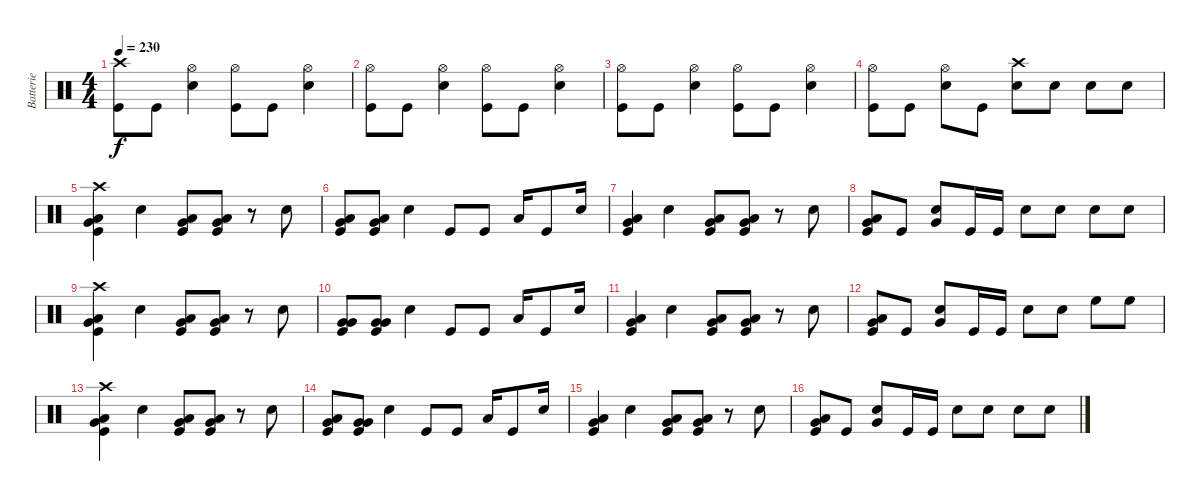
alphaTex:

\track ("Batterie" "Batterie") {instrument percussion}
\staff {score}
\articulation defaults
\ts (4 4)
\tempo 230
\clef neutral
\ks c
("Crash high (hit)" "Kick (hit)").8{dy f} "Kick (hit)".8 ("Hi-Hat (open)" "Snare (hit) 2").4 ("Hi-Hat (open)" "Kick (hit)").8 "Kick (hit)".8 ("Hi-Hat (open)" "Snare (hit) 2").4 |
("Hi-Hat (open)" "Kick (hit)").8 "Kick (hit)".8 ("Hi-Hat (open)" "Snare (hit) 2").4 ("Hi-Hat (open)" "Kick (hit)").8 "Kick (hit)".8 ("Hi-Hat (open)" "Snare (hit) 2").4 |
("Hi-Hat (open)" "Kick (hit)").8 "Kick (hit)".8 ("Hi-Hat (open)" "Snare (hit) 2").4 ("Hi-Hat (open)" "Kick (hit)").8 "Kick (hit)".8 ("Hi-Hat (open)" "Snare (hit) 2").4 |
("Hi-Hat (open)" "Kick (hit)").8 "Kick (hit)".8 ("Hi-Hat (open)" "Snare (hit) 2").8 "Kick (hit)".8 ("Crash high (hit)" "Snare (hit) 2").8 "Snare (hit) 2".8 "Snare (hit) 2".8 "Snare (hit) 2".8 |
("Crash high (hit)" "Very Low Tom (hit)" "Low Tom (hit)" "Kick (hit)").4 "Snare (hit) 2".4 ("Very Low Tom (hit)" "Low Tom (hit)" "Kick (hit)").8 ("Very Low Tom (hit)" "Low Tom (hit)" "Kick (hit)").8 r.8 "Snare (hit) 2".8 |
("Very Low Tom (hit)" "Low Tom (hit)" "Kick (hit)").8 ("Very Low Tom (hit)" "Low Tom (hit)" "Kick (hit)").8 "Snare (hit) 2".4 "Kick (hit)".8 "Kick (hit)".8 "Low Tom (hit)".16 "Kick (hit)".8 "Snare (hit) 2".16 |
("Very Low Tom (hit)" "Low Tom (hit)" "Kick (hit)").4 "Snare (hit) 2".4 ("Very Low Tom (hit)" "Low Tom (hit)" "Kick (hit)").8 ("Very Low Tom (hit)" "Low Tom (hit)" "Kick (hit)").8 r.8 "Snare (hit) 2".8 |
("Very Low Tom (hit)" "Low Tom (hit)" "Kick (hit)").8 "Kick (hit)".8 ("Very Low Tom (hit)" "Snare (hit) 2").8 "Kick (hit)".16 "Kick (hit)".16 "Snare (hit) 2".8 "Snare (hit) 2".8 "Snare (hit) 2".8 "Snare (hit) 2".8 |
("Crash high (hit)" "Very Low Tom (hit)" "Low Tom (hit)" "Kick (hit)").4 "Snare (hit) 2".4 ("Very Low Tom (hit)" "Low Tom (hit)" "Kick (hit)").8 ("Very Low Tom (hit)" "Low Tom (hit)" "Kick (hit)").8 r.8 "Snare (hit) 2".8 |
("Very Low Tom (hit)" "Very Low Tom (hit)" "Kick (hit)").8 ("Very Low Tom (hit)" "Very Low Tom (hit)" "Kick (hit)").8 "Snare (hit) 2".4 "Kick (hit)".8 "Kick (hit)".8 "Low Tom (hit)".16 "Kick (hit)".8 "Snare (hit) 2".16 |
("Very Low Tom (hit)" "Low Tom (hit)" "Kick (hit)").4 "Snare (hit) 2".4 ("Very Low Tom (hit)" "Low Tom (hit)" "Kick (hit)").8 ("Very Low Tom (hit)" "Low Tom (hit)" "Kick (hit)").8 r.8 "Snare (hit) 2".8 |
("Very Low Tom (hit)" "Low Tom (hit)" "Kick (hit)").8 "Kick (hit)".8 ("Very Low Tom (hit)" "Snare (hit) 2").8 "Kick (hit)".16 "Kick (hit)".16 "Snare (hit) 2".8 "Snare (hit) 2".8 "High Floor Tom (hit)".8 "High Floor Tom (hit)".8 |
("Crash high (hit)" "Very Low Tom (hit)" "Low Tom (hit)" "Kick (hit)").4 "Snare (hit) 2".4 ("Very Low Tom (hit)" "Low Tom (hit)" "Kick (hit)").8 ("Very Low Tom (hit)" "Low Tom (hit)" "Kick (hit)").8 r.8 "Snare (hit) 2".8 |
("Very Low Tom (hit)" "Low Tom (hit)" "Kick (hit)").8 ("Very Low Tom (hit)" "Very Low Tom (hit)" "Kick (hit)").8 "Snare (hit) 2".4 "Kick (hit)".8 "Kick (hit)".8 "Low Tom (hit)".16 "Kick (hit)".8 "Snare (hit) 2".16 |
("Very Low Tom (hit)" "Low Tom (hit)" "Kick (hit)").4 "Snare (hit) 2".4 ("Very Low Tom (hit)" "Low Tom (hit)" "Kick (hit)").8 ("Very Low Tom (hit)" "Low Tom (hit)" "Kick (hit)").8 r.8 "Snare (hit) 2".8 |
("Very Low Tom (hit)" "Low Tom (hit)" "Kick (hit)").8 "Kick (hit)".8 ("Very Low Tom (hit)" "Snare (hit) 2").8 "Kick (hit)".16 "Kick (hit)".16 "Snare (hit) 2".8 "Snare (hit) 2".8 "Snare (hit) 2".8 "Snare (hit) 2".8
